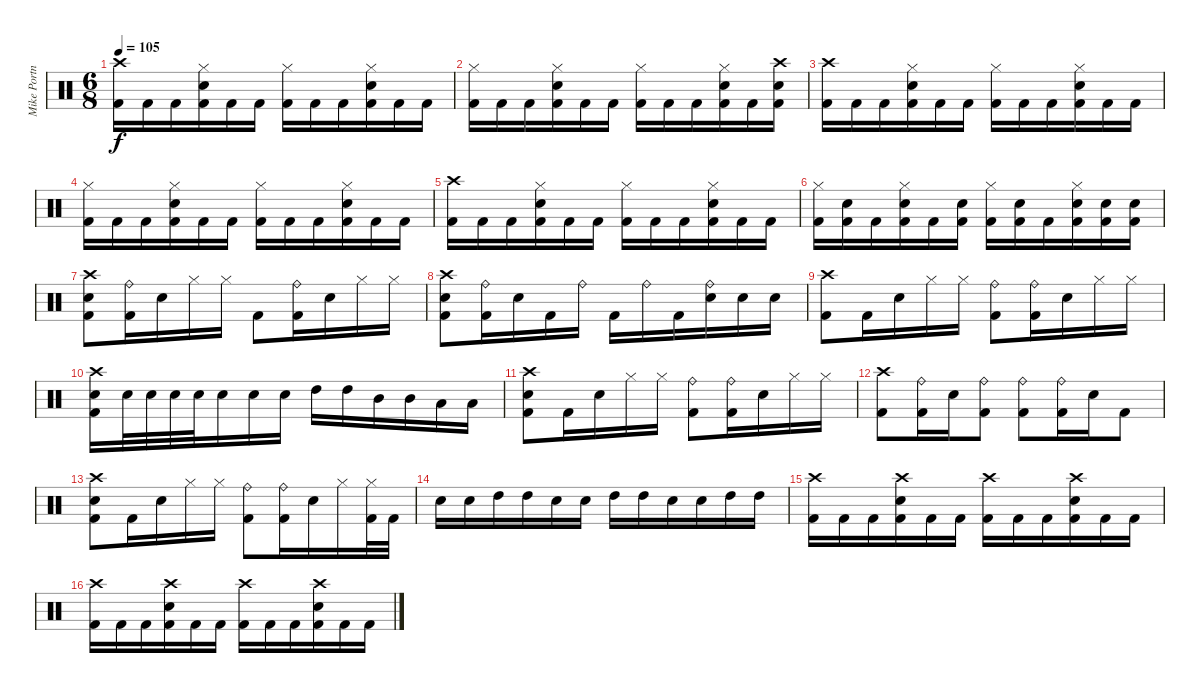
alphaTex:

\track ("Mike Portnoy" "Mike Portn") {instrument percussion}
\staff {score}
\articulation defaults
\ts (6 8)
\tempo 105
\clef neutral
\ks c
("Crash high (hit)" "Kick (hit) 2").16{dy f} "Kick (hit) 2".16 "Kick (hit) 2".16 ("Hi-Hat (closed)" "Electric Snare (hit)" "Kick (hit) 2").16 "Kick (hit) 2".16 "Kick (hit) 2".16 ("Hi-Hat (closed)" "Kick (hit) 2").16 "Kick (hit) 2".16 "Kick (hit) 2".16 ("Hi-Hat (closed)" "Electric Snare (hit)" "Kick (hit) 2").16 "Kick (hit) 2".16 "Kick (hit) 2".16 |
("Hi-Hat (closed)" "Kick (hit) 2").16 "Kick (hit) 2".16 "Kick (hit) 2".16 ("Hi-Hat (closed)" "Electric Snare (hit)" "Kick (hit) 2").16 "Kick (hit) 2".16 "Kick (hit) 2".16 ("Hi-Hat (closed)" "Kick (hit) 2").16 "Kick (hit) 2".16 "Kick (hit) 2".16 ("Hi-Hat (closed)" "Electric Snare (hit)" "Kick (hit) 2").16 "Kick (hit) 2".16 ("Crash high (hit)" "Electric Snare (hit)" "Kick (hit) 2").16 |
("Crash high (hit)" "Kick (hit) 2").16 "Kick (hit) 2".16 "Kick (hit) 2".16 ("Hi-Hat (closed)" "Electric Snare (hit)" "Kick (hit) 2").16 "Kick (hit) 2".16 "Kick (hit) 2".16 ("Hi-Hat (closed)" "Kick (hit) 2").16 "Kick (hit) 2".16 "Kick (hit) 2".16 ("Hi-Hat (closed)" "Electric Snare (hit)" "Kick (hit) 2").16 "Kick (hit) 2".16 "Kick (hit) 2".16 |
("Hi-Hat (closed)" "Kick (hit) 2").16 "Kick (hit) 2".16 "Kick (hit) 2".16 ("Hi-Hat (closed)" "Electric Snare (hit)" "Kick (hit) 2").16 "Kick (hit) 2".16 "Kick (hit) 2".16 ("Hi-Hat (closed)" "Kick (hit) 2").16 "Kick (hit) 2".16 "Kick (hit) 2".16 ("Hi-Hat (closed)" "Electric Snare (hit)" "Kick (hit) 2").16 "Kick (hit) 2".16 "Kick (hit) 2".16 |
("Crash high (hit)" "Kick (hit) 2").16 "Kick (hit) 2".16 "Kick (hit) 2".16 ("Hi-Hat (closed)" "Electric Snare (hit)" "Kick (hit) 2").16 "Kick (hit) 2".16 "Kick (hit) 2".16 ("Hi-Hat (closed)" "Kick (hit) 2").16 "Kick (hit) 2".16 "Kick (hit) 2".16 ("Hi-Hat (closed)" "Electric Snare (hit)" "Kick (hit) 2").16 "Kick (hit) 2".16 "Kick (hit) 2".16 |
("Hi-Hat (closed)" "Kick (hit) 2").16 ("Electric Snare (hit)" "Kick (hit) 2").16 "Kick (hit) 2".16 ("Hi-Hat (closed)" "Electric Snare (hit)" "Kick (hit) 2").16 "Kick (hit) 2".16 ("Electric Snare (hit)" "Kick (hit) 2").16 ("Hi-Hat (closed)" "Kick (hit) 2").16 ("Electric Snare (hit)" "Kick (hit) 2").16 "Kick (hit) 2".16 ("Hi-Hat (closed)" "Electric Snare (hit)" "Kick (hit) 2").16 ("Electric Snare (hit)" "Kick (hit) 2").16 ("Electric Snare (hit)" "Kick (hit) 2").16 |
("Crash high (hit)" "Electric Snare (hit)" "Kick (hit) 2").8 ("Ride (bell)" "Kick (hit) 2").16 "Electric Snare (hit)".16 "Hi-Hat (closed)".16 "Hi-Hat (closed)".16 "Kick (hit) 2".8 ("Ride (bell)" "Kick (hit) 2").16 "Electric Snare (hit)".16 "Hi-Hat (closed)".16 "Hi-Hat (closed)".16 |
("Crash high (hit)" "Electric Snare (hit)" "Kick (hit) 2").8 ("Ride (bell)" "Kick (hit) 2").16 "Electric Snare (hit)".16 "Kick (hit) 2".16 "Ride (bell)".16 "Kick (hit) 2".16 "Ride (bell)".16 "Kick (hit) 2".16 ("Ride (bell)" "Electric Snare (hit)").16 "Electric Snare (hit)".16 "Electric Snare (hit)".16 |
("Crash high (hit)" "Kick (hit) 2").8 "Kick (hit) 2".16 "Electric Snare (hit)".16 "Hi-Hat (closed)".16 "Hi-Hat (closed)".16 ("Ride (bell)" "Kick (hit) 2").8 ("Ride (bell)" "Kick (hit) 2").16 "Electric Snare (hit)".16 "Hi-Hat (closed)".16 "Hi-Hat (closed)".16 |
("Crash high (hit)" "Electric Snare (hit)" "Kick (hit) 2").16 "Electric Snare (hit)".32 "Electric Snare (hit)".32 "Electric Snare (hit)".32 "Electric Snare (hit)".32 "Electric Snare (hit)".16 "Electric Snare (hit)".16 "Electric Snare (hit)".16 "High Tom (hit)".16 "High Tom (hit)".16 "Mid Tom (hit)".16 "Mid Tom (hit)".16 "Low Tom (hit)".16 "Low Tom (hit)".16 |
("Crash high (hit)" "Electric Snare (hit)" "Kick (hit) 2").8 "Kick (hit) 2".16 "Electric Snare (hit)".16 "Hi-Hat (closed)".16 "Hi-Hat (closed)".16 ("Ride (bell)" "Kick (hit) 2").8 ("Ride (bell)" "Kick (hit) 2").16 "Electric Snare (hit)".16 "Hi-Hat (closed)".16 "Hi-Hat (closed)".16 |
("Crash high (hit)" "Kick (hit) 2").8 ("Ride (bell)" "Kick (hit) 2").16 "Electric Snare (hit)".16 ("Ride (bell)" "Kick (hit) 2").8 ("Ride (bell)" "Kick (hit) 2").8 ("Ride (bell)" "Kick (hit) 2").16 "Electric Snare (hit)".16 "Kick (hit) 2".8 |
("Crash high (hit)" "Electric Snare (hit)" "Kick (hit) 2").8 "Kick (hit) 2".16 "Electric Snare (hit)".16 "Hi-Hat (closed)".16 "Hi-Hat (closed)".16 ("Ride (bell)" "Kick (hit) 2").8 ("Ride (bell)" "Kick (hit) 2").16 "Electric Snare (hit)".16 "Hi-Hat (closed)".16 ("Hi-Hat (closed)" "Kick (hit) 2").32 "Kick (hit) 2".32 |
"Electric Snare (hit)".16 "Electric Snare (hit)".16 "High Tom (hit)".16 "High Tom (hit)".16 "Electric Snare (hit)".16 "Electric Snare (hit)".16 "High Tom (hit)".16 "High Tom (hit)".16 "Electric Snare (hit)".16 "Electric Snare (hit)".16 "High Tom (hit)".16 "High Tom (hit)".16 |
("Crash high (hit)" "Kick (hit) 2").16 "Kick (hit) 2".16 "Kick (hit) 2".16 ("Crash high (hit)" "Electric Snare (hit)" "Kick (hit) 2").16 "Kick (hit) 2".16 "Kick (hit) 2".16 ("Crash high (hit)" "Kick (hit) 2").16 "Kick (hit) 2".16 "Kick (hit) 2".16 ("Crash high (hit)" "Electric Snare (hit)" "Kick (hit) 2").16 "Kick (hit) 2".16 "Kick (hit) 2".16 |
("Crash high (hit)" "Kick (hit) 2").16 "Kick (hit) 2".16 "Kick (hit) 2".16 ("Crash high (hit)" "Electric Snare (hit)" "Kick (hit) 2").16 "Kick (hit) 2".16 "Kick (hit) 2".16 ("Crash high (hit)" "Kick (hit) 2").16 "Kick (hit) 2".16 "Kick (hit) 2".16 ("Crash high (hit)" "Electric Snare (hit)" "Kick (hit) 2").16 "Kick (hit) 2".16 "Kick (hit) 2".16
